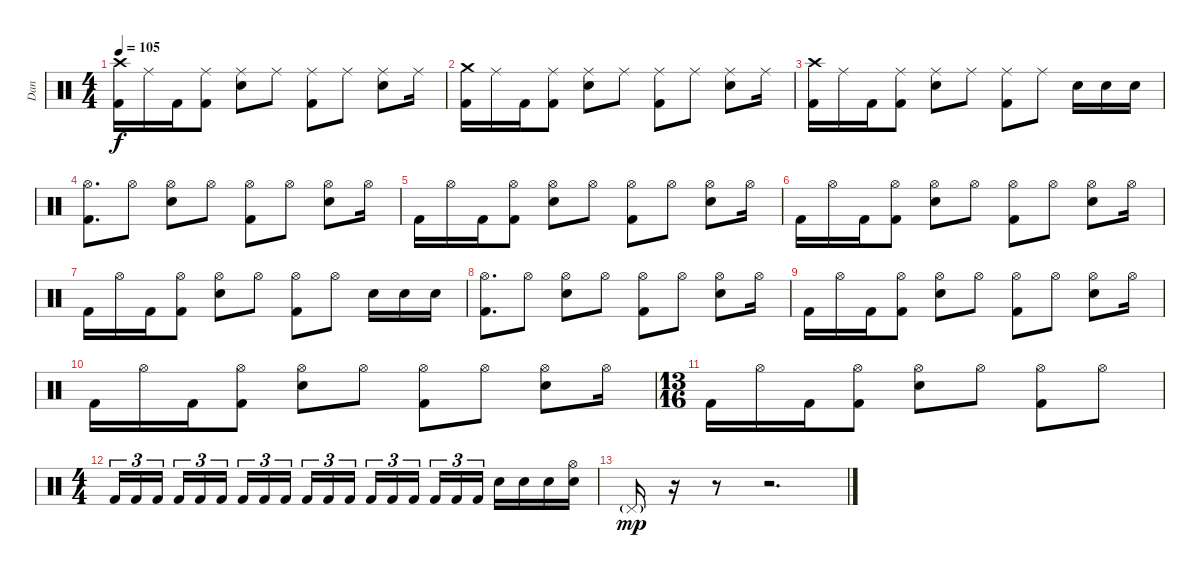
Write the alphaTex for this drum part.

\track ("Dan" "Dan") {instrument percussion}
\staff {score}
\articulation defaults
\ts (4 4)
\tempo 105
\clef neutral
\ks c
("Crash high (hit)" "Kick (hit) 2").16{dy f} "Ride (middle)".16 "Kick (hit) 2".16 ("Ride (middle)" "Kick (hit) 2").8 ("Ride (middle)" "Snare (hit) 2").8 "Ride (middle)".8 ("Ride (middle)" "Kick (hit) 2").8 "Ride (middle)".8 ("Ride (middle)" "Snare (hit) 2").8 "Ride (middle)".16 |
("Crash medium (hit)" "Kick (hit) 2").16 "Ride (middle)".16 "Kick (hit) 2".16 ("Ride (middle)" "Kick (hit) 2").8 ("Ride (middle)" "Snare (hit) 2").8 "Ride (middle)".8 ("Ride (middle)" "Kick (hit) 2").8 "Ride (middle)".8 ("Ride (middle)" "Snare (hit) 2").8 "Ride (middle)".16 |
("Crash high (hit)" "Kick (hit) 2").16 "Ride (middle)".16 "Kick (hit) 2".16 ("Ride (middle)" "Kick (hit) 2").8 ("Ride (middle)" "Snare (hit) 2").8 "Ride (middle)".8 ("Ride (middle)" "Kick (hit) 2").8 "Ride (middle)".8 "Snare (hit) 2".16 "Snare (hit) 2".16 "Snare (hit) 2".16 |
("Hi-Hat (open)" "Kick (hit) 2").8{d} "Hi-Hat (open)".8 ("Hi-Hat (open)" "Snare (hit) 2").8 "Hi-Hat (open)".8 ("Hi-Hat (open)" "Kick (hit) 2").8 "Hi-Hat (open)".8 ("Hi-Hat (open)" "Snare (hit) 2").8 "Hi-Hat (open)".16 |
"Kick (hit) 2".16 "Hi-Hat (open)".16 "Kick (hit) 2".16 ("Hi-Hat (open)" "Kick (hit) 2").8 ("Hi-Hat (open)" "Snare (hit) 2").8 "Hi-Hat (open)".8 ("Hi-Hat (open)" "Kick (hit) 2").8 "Hi-Hat (open)".8 ("Hi-Hat (open)" "Snare (hit) 2").8 "Hi-Hat (open)".16 |
"Kick (hit) 2".16 "Hi-Hat (open)".16 "Kick (hit) 2".16 ("Hi-Hat (open)" "Kick (hit) 2").8 ("Hi-Hat (open)" "Snare (hit) 2").8 "Hi-Hat (open)".8 ("Hi-Hat (open)" "Kick (hit) 2").8 "Hi-Hat (open)".8 ("Hi-Hat (open)" "Snare (hit) 2").8 "Hi-Hat (open)".16 |
"Kick (hit) 2".16 "Hi-Hat (open)".16 "Kick (hit) 2".16 ("Hi-Hat (open)" "Kick (hit) 2").8 ("Hi-Hat (open)" "Snare (hit) 2").8 "Hi-Hat (open)".8 ("Hi-Hat (open)" "Kick (hit) 2").8 "Hi-Hat (open)".8 "Snare (hit) 2".16 "Snare (hit) 2".16 "Snare (hit) 2".16 |
("Hi-Hat (open)" "Kick (hit) 2").8{d} "Hi-Hat (open)".8 ("Hi-Hat (open)" "Snare (hit) 2").8 "Hi-Hat (open)".8 ("Hi-Hat (open)" "Kick (hit) 2").8 "Hi-Hat (open)".8 ("Hi-Hat (open)" "Snare (hit) 2").8 "Hi-Hat (open)".16 |
"Kick (hit) 2".16 "Hi-Hat (open)".16 "Kick (hit) 2".16 ("Hi-Hat (open)" "Kick (hit) 2").8 ("Hi-Hat (open)" "Snare (hit) 2").8 "Hi-Hat (open)".8 ("Hi-Hat (open)" "Kick (hit) 2").8 "Hi-Hat (open)".8 ("Hi-Hat (open)" "Snare (hit) 2").8 "Hi-Hat (open)".16 |
"Kick (hit) 2".16 "Hi-Hat (open)".16 "Kick (hit) 2".16 ("Hi-Hat (open)" "Kick (hit) 2").8 ("Hi-Hat (open)" "Snare (hit) 2").8 "Hi-Hat (open)".8 ("Hi-Hat (open)" "Kick (hit) 2").8 "Hi-Hat (open)".8 ("Hi-Hat (open)" "Snare (hit) 2").8 "Hi-Hat (open)".16 |
\ts (13 16)
"Kick (hit) 2".16 "Hi-Hat (open)".16 "Kick (hit) 2".16 ("Hi-Hat (open)" "Kick (hit) 2").8 ("Hi-Hat (open)" "Snare (hit) 2").8 "Hi-Hat (open)".8 ("Hi-Hat (open)" "Kick (hit) 2").8 "Hi-Hat (open)".8 |
\ts (4 4)
"Kick (hit) 2".16{tu (3 2)} "Kick (hit) 2".16{tu (3 2)} "Kick (hit) 2".16{tu (3 2) beam splitsecondary} "Kick (hit) 2".16{tu (3 2)} "Kick (hit) 2".16{tu (3 2)} "Kick (hit) 2".16{tu (3 2)} "Kick (hit) 2".16{tu (3 2)} "Kick (hit) 2".16{tu (3 2)} "Kick (hit) 2".16{tu (3 2) beam splitsecondary} "Kick (hit) 2".16{tu (3 2)} "Kick (hit) 2".16{tu (3 2)} "Kick (hit) 2".16{tu (3 2)} "Kick (hit) 2".16{tu (3 2)} "Kick (hit) 2".16{tu (3 2)} "Kick (hit) 2".16{tu (3 2) beam splitsecondary} "Kick (hit) 2".16{tu (3 2)} "Kick (hit) 2".16{tu (3 2)} "Kick (hit) 2".16{tu (3 2)} "Snare (hit) 2".16 "Snare (hit) 2".16 "Snare (hit) 2".16 ("Hi-Hat (open)" "Snare (hit) 2").16 |
"Pedal Hi-Hat (hit)"{g}.16{dy mp} r.16 r.8 r.2{d}
